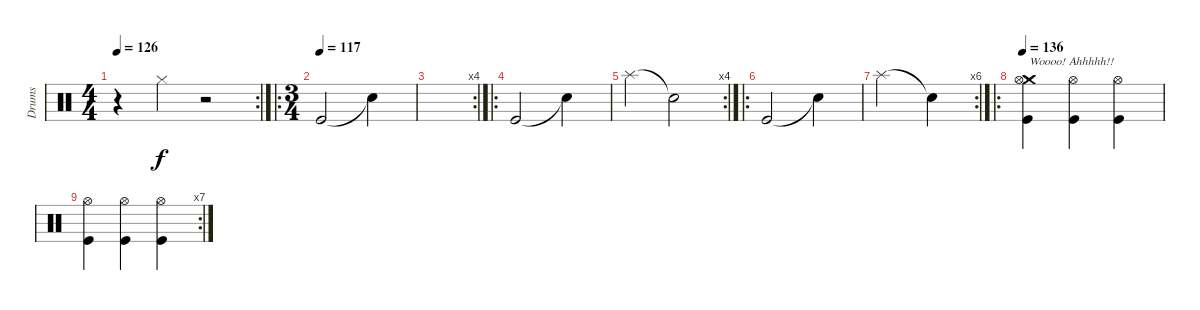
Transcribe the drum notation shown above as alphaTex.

\track ("Drums" "Drums") {instrument percussion}
\staff {score}
\articulation defaults
\rc 2
\ts (4 4)
\tempo 126
\clef neutral
\ks c
r.4{dy f} "Hi-Hat (closed)".4 r.2 |
\ro
\ts (3 4)
\tempo (117)
"Kick (hit)".2 "Snare (hit)"{t}.4 |
\rc 4
|
\ro "Kick (hit)".2 "Snare (hit)"{t}.4
|
\rc 4 "Splash (hit)".4 "Snare (hit)"{t}.2
|
\ro "Kick (hit)".2 "Snare (hit)"{t}.4
|
\rc 6 "Splash (hit)".2 "Snare (hit)"{t}.4
|
\ro
\tempo 136
("Crash medium (hit)" "Hi-Hat (open)" "Kick (hit)").4{txt "Woooo! Ahhhhh!!"} ("Hi-Hat (open)" "Kick (hit)").4 ("Hi-Hat (open)" "Kick (hit)").4 |
\rc 7
("Hi-Hat (open)" "Kick (hit)").4 ("Hi-Hat (open)" "Kick (hit)").4 ("Hi-Hat (open)" "Kick (hit)").4
